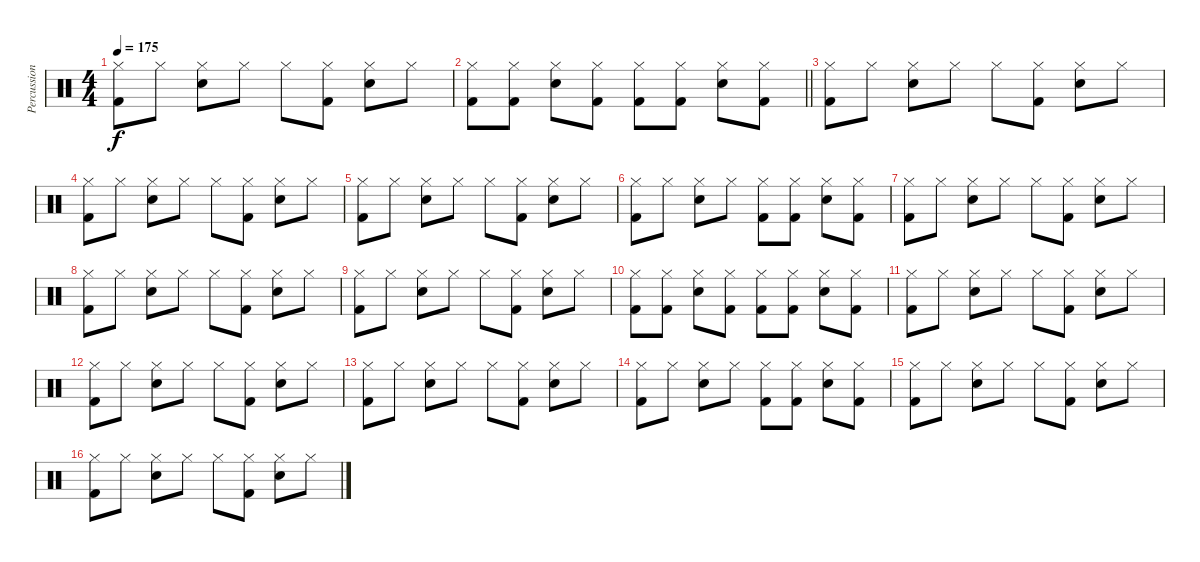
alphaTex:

\track ("Percussion" "Percussion") {instrument percussion}
\staff {score}
\articulation defaults
\ts (4 4)
\tempo 175
\clef neutral
\ks c
("Hi-Hat (closed)" "Kick (hit) 2").8{dy f} "Hi-Hat (closed)".8 ("Hi-Hat (closed)" "Snare (hit) 2").8 "Hi-Hat (closed)".8 "Hi-Hat (closed)".8 ("Hi-Hat (closed)" "Kick (hit) 2").8 ("Hi-Hat (closed)" "Snare (hit) 2").8 "Hi-Hat (closed)".8 |
\barLineRight lightlight
("Hi-Hat (closed)" "Kick (hit) 2").8 ("Hi-Hat (closed)" "Kick (hit) 2").8 ("Hi-Hat (closed)" "Snare (hit) 2").8 ("Hi-Hat (closed)" "Kick (hit) 2").8 ("Hi-Hat (closed)" "Kick (hit) 2").8 ("Hi-Hat (closed)" "Kick (hit) 2").8 ("Hi-Hat (closed)" "Snare (hit) 2").8 ("Hi-Hat (closed)" "Kick (hit) 2").8 |
("Hi-Hat (closed)" "Kick (hit) 2").8 "Hi-Hat (closed)".8 ("Hi-Hat (closed)" "Snare (hit) 2").8 "Hi-Hat (closed)".8 "Hi-Hat (closed)".8 ("Hi-Hat (closed)" "Kick (hit) 2").8 ("Hi-Hat (closed)" "Snare (hit) 2").8 "Hi-Hat (closed)".8 |
("Hi-Hat (closed)" "Kick (hit) 2").8 "Hi-Hat (closed)".8 ("Hi-Hat (closed)" "Snare (hit) 2").8 "Hi-Hat (closed)".8 "Hi-Hat (closed)".8 ("Hi-Hat (closed)" "Kick (hit) 2").8 ("Hi-Hat (closed)" "Snare (hit) 2").8 "Hi-Hat (closed)".8 |
("Hi-Hat (closed)" "Kick (hit) 2").8 "Hi-Hat (closed)".8 ("Hi-Hat (closed)" "Snare (hit) 2").8 "Hi-Hat (closed)".8 "Hi-Hat (closed)".8 ("Hi-Hat (closed)" "Kick (hit) 2").8 ("Hi-Hat (closed)" "Snare (hit) 2").8 "Hi-Hat (closed)".8 |
("Hi-Hat (closed)" "Kick (hit) 2").8 "Hi-Hat (closed)".8 ("Hi-Hat (closed)" "Snare (hit) 2").8 "Hi-Hat (closed)".8 ("Hi-Hat (closed)" "Kick (hit) 2").8 ("Hi-Hat (closed)" "Kick (hit) 2").8 ("Hi-Hat (closed)" "Snare (hit) 2").8 ("Hi-Hat (closed)" "Kick (hit) 2").8 |
("Hi-Hat (closed)" "Kick (hit) 2").8 "Hi-Hat (closed)".8 ("Hi-Hat (closed)" "Snare (hit) 2").8 "Hi-Hat (closed)".8 "Hi-Hat (closed)".8 ("Hi-Hat (closed)" "Kick (hit) 2").8 ("Hi-Hat (closed)" "Snare (hit) 2").8 "Hi-Hat (closed)".8 |
("Hi-Hat (closed)" "Kick (hit) 2").8 "Hi-Hat (closed)".8 ("Hi-Hat (closed)" "Snare (hit) 2").8 "Hi-Hat (closed)".8 "Hi-Hat (closed)".8 ("Hi-Hat (closed)" "Kick (hit) 2").8 ("Hi-Hat (closed)" "Snare (hit) 2").8 "Hi-Hat (closed)".8 |
("Hi-Hat (closed)" "Kick (hit) 2").8 "Hi-Hat (closed)".8 ("Hi-Hat (closed)" "Snare (hit) 2").8 "Hi-Hat (closed)".8 "Hi-Hat (closed)".8 ("Hi-Hat (closed)" "Kick (hit) 2").8 ("Hi-Hat (closed)" "Snare (hit) 2").8 "Hi-Hat (closed)".8 |
("Hi-Hat (closed)" "Kick (hit) 2").8 ("Hi-Hat (closed)" "Kick (hit) 2").8 ("Hi-Hat (closed)" "Snare (hit) 2").8 ("Hi-Hat (closed)" "Kick (hit) 2").8 ("Hi-Hat (closed)" "Kick (hit) 2").8 ("Hi-Hat (closed)" "Kick (hit) 2").8 ("Hi-Hat (closed)" "Snare (hit) 2").8 ("Hi-Hat (closed)" "Kick (hit) 2").8 |
("Hi-Hat (closed)" "Kick (hit) 2").8 "Hi-Hat (closed)".8 ("Hi-Hat (closed)" "Snare (hit) 2").8 "Hi-Hat (closed)".8 "Hi-Hat (closed)".8 ("Hi-Hat (closed)" "Kick (hit) 2").8 ("Hi-Hat (closed)" "Snare (hit) 2").8 "Hi-Hat (closed)".8 |
("Hi-Hat (closed)" "Kick (hit) 2").8 "Hi-Hat (closed)".8 ("Hi-Hat (closed)" "Snare (hit) 2").8 "Hi-Hat (closed)".8 "Hi-Hat (closed)".8 ("Hi-Hat (closed)" "Kick (hit) 2").8 ("Hi-Hat (closed)" "Snare (hit) 2").8 "Hi-Hat (closed)".8 |
("Hi-Hat (closed)" "Kick (hit) 2").8 "Hi-Hat (closed)".8 ("Hi-Hat (closed)" "Snare (hit) 2").8 "Hi-Hat (closed)".8 "Hi-Hat (closed)".8 ("Hi-Hat (closed)" "Kick (hit) 2").8 ("Hi-Hat (closed)" "Snare (hit) 2").8 "Hi-Hat (closed)".8 |
("Hi-Hat (closed)" "Kick (hit) 2").8 "Hi-Hat (closed)".8 ("Hi-Hat (closed)" "Snare (hit) 2").8 "Hi-Hat (closed)".8 ("Hi-Hat (closed)" "Kick (hit) 2").8 ("Hi-Hat (closed)" "Kick (hit) 2").8 ("Hi-Hat (closed)" "Snare (hit) 2").8 ("Hi-Hat (closed)" "Kick (hit) 2").8 |
("Hi-Hat (closed)" "Kick (hit) 2").8 "Hi-Hat (closed)".8 ("Hi-Hat (closed)" "Snare (hit) 2").8 "Hi-Hat (closed)".8 "Hi-Hat (closed)".8 ("Hi-Hat (closed)" "Kick (hit) 2").8 ("Hi-Hat (closed)" "Snare (hit) 2").8 "Hi-Hat (closed)".8 |
("Hi-Hat (closed)" "Kick (hit) 2").8 "Hi-Hat (closed)".8 ("Hi-Hat (closed)" "Snare (hit) 2").8 "Hi-Hat (closed)".8 "Hi-Hat (closed)".8 ("Hi-Hat (closed)" "Kick (hit) 2").8 ("Hi-Hat (closed)" "Snare (hit) 2").8 "Hi-Hat (closed)".8
